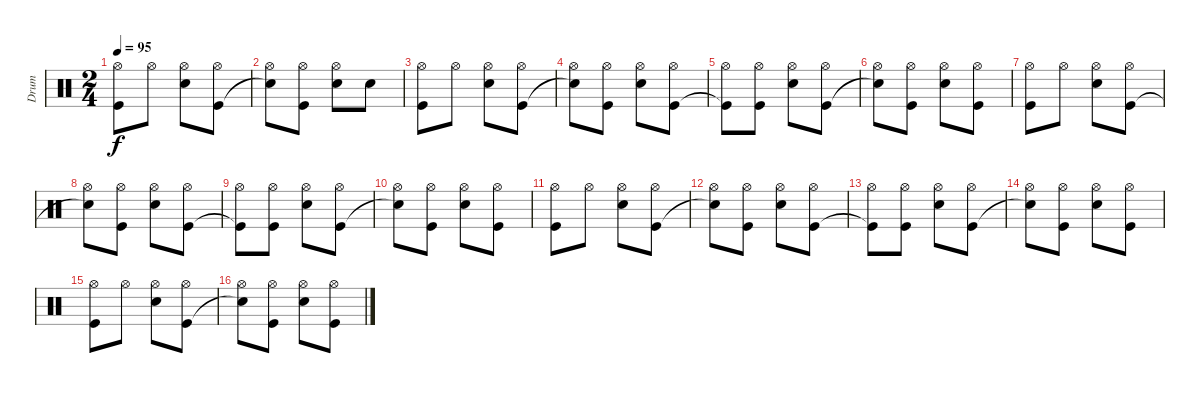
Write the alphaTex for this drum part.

\track ("Drum" "Drum") {instrument percussion}
\staff {score}
\articulation defaults
\ts (2 4)
\tempo 95
\clef neutral
\ks c
("Kick (hit)" "Hi-Hat (open)").8{dy f} "Hi-Hat (open)".8 ("Electric Snare (hit)" "Hi-Hat (open)").8 ("Kick (hit)" "Hi-Hat (open)").8 |
("Snare (hit)"{t} "Hi-Hat (open)").8 ("Kick (hit)" "Hi-Hat (open)").8 ("Electric Snare (hit)" "Hi-Hat (open)").8 "Snare (hit) 2".8 |
("Kick (hit)" "Hi-Hat (open)").8 "Hi-Hat (open)".8 ("Electric Snare (hit)" "Hi-Hat (open)").8 ("Kick (hit)" "Hi-Hat (open)").8 |
("Snare (hit)"{t} "Hi-Hat (open)").8 ("Kick (hit)" "Hi-Hat (open)").8 ("Electric Snare (hit)" "Hi-Hat (open)").8 ("Kick (hit)" "Hi-Hat (open)").8 |
("Kick (hit)"{t} "Hi-Hat (open)").8 ("Kick (hit)" "Hi-Hat (open)").8 ("Electric Snare (hit)" "Hi-Hat (open)").8 ("Kick (hit)" "Hi-Hat (open)").8 |
("Snare (hit)"{t} "Hi-Hat (open)").8 ("Kick (hit)" "Hi-Hat (open)").8 ("Electric Snare (hit)" "Hi-Hat (open)").8 ("Kick (hit)" "Hi-Hat (open)").8 |
("Kick (hit)" "Hi-Hat (open)").8 "Hi-Hat (open)".8 ("Electric Snare (hit)" "Hi-Hat (open)").8 ("Kick (hit)" "Hi-Hat (open)").8 |
("Snare (hit)"{t} "Hi-Hat (open)").8 ("Kick (hit)" "Hi-Hat (open)").8 ("Electric Snare (hit)" "Hi-Hat (open)").8 ("Kick (hit)" "Hi-Hat (open)").8 |
("Kick (hit)"{t} "Hi-Hat (open)").8 ("Kick (hit)" "Hi-Hat (open)").8 ("Electric Snare (hit)" "Hi-Hat (open)").8 ("Kick (hit)" "Hi-Hat (open)").8 |
("Snare (hit)"{t} "Hi-Hat (open)").8 ("Kick (hit)" "Hi-Hat (open)").8 ("Electric Snare (hit)" "Hi-Hat (open)").8 ("Kick (hit)" "Hi-Hat (open)").8 |
("Kick (hit)" "Hi-Hat (open)").8 "Hi-Hat (open)".8 ("Electric Snare (hit)" "Hi-Hat (open)").8 ("Kick (hit)" "Hi-Hat (open)").8 |
("Snare (hit)"{t} "Hi-Hat (open)").8 ("Kick (hit)" "Hi-Hat (open)").8 ("Electric Snare (hit)" "Hi-Hat (open)").8 ("Kick (hit)" "Hi-Hat (open)").8 |
("Kick (hit)"{t} "Hi-Hat (open)").8 ("Kick (hit)" "Hi-Hat (open)").8 ("Electric Snare (hit)" "Hi-Hat (open)").8 ("Kick (hit)" "Hi-Hat (open)").8 |
("Snare (hit)"{t} "Hi-Hat (open)").8 ("Kick (hit)" "Hi-Hat (open)").8 ("Electric Snare (hit)" "Hi-Hat (open)").8 ("Kick (hit)" "Hi-Hat (open)").8 |
("Kick (hit)" "Hi-Hat (open)").8 "Hi-Hat (open)".8 ("Electric Snare (hit)" "Hi-Hat (open)").8 ("Kick (hit)" "Hi-Hat (open)").8 |
("Snare (hit)"{t} "Hi-Hat (open)").8 ("Kick (hit)" "Hi-Hat (open)").8 ("Electric Snare (hit)" "Hi-Hat (open)").8 ("Kick (hit)" "Hi-Hat (open)").8
